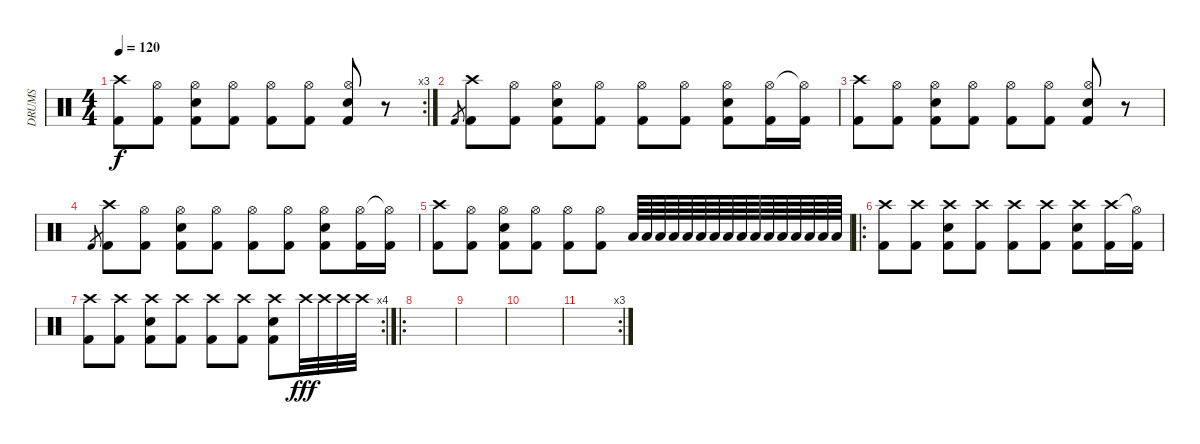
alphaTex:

\track ("DRUMS" "DRUMS") {instrument percussion}
\staff {score}
\articulation defaults
\rc 3
\ts (4 4)
\tempo 120
\clef neutral
\ks c
("Crash high (hit)" "Kick (hit) 2").8{dy f} ("Hi-Hat (open)" "Kick (hit) 2").8 ("Hi-Hat (open)" "Snare (hit) 2" "Kick (hit) 2").8 ("Hi-Hat (open)" "Kick (hit) 2").8 ("Hi-Hat (open)" "Kick (hit) 2").8 ("Hi-Hat (open)" "Kick (hit) 2").8 ("Hi-Hat (open)" "Snare (hit) 2" "Kick (hit) 2").8 r.8 |
"Kick (hit) 2".8{gr} ("Crash high (hit)" "Kick (hit) 2").8 ("Hi-Hat (open)" "Kick (hit) 2").8 ("Hi-Hat (open)" "Snare (hit) 2" "Kick (hit) 2").8 ("Hi-Hat (open)" "Kick (hit) 2").8 ("Hi-Hat (open)" "Kick (hit) 2").8 ("Hi-Hat (open)" "Kick (hit) 2").8 ("Hi-Hat (open)" "Snare (hit) 2" "Kick (hit) 2").8 ("Hi-Hat (open)" "Kick (hit) 2").16 ("Hi-Hat (open)"{t} "Kick (hit) 2").16 |
("Crash high (hit)" "Kick (hit) 2").8 ("Hi-Hat (open)" "Kick (hit) 2").8 ("Hi-Hat (open)" "Snare (hit) 2" "Kick (hit) 2").8 ("Hi-Hat (open)" "Kick (hit) 2").8 ("Hi-Hat (open)" "Kick (hit) 2").8 ("Hi-Hat (open)" "Kick (hit) 2").8 ("Hi-Hat (open)" "Snare (hit) 2" "Kick (hit) 2").8 r.8 |
"Kick (hit) 2".8{gr} ("Crash high (hit)" "Kick (hit) 2").8 ("Hi-Hat (open)" "Kick (hit) 2").8 ("Hi-Hat (open)" "Snare (hit) 2" "Kick (hit) 2").8 ("Hi-Hat (open)" "Kick (hit) 2").8 ("Hi-Hat (open)" "Kick (hit) 2").8 ("Hi-Hat (open)" "Kick (hit) 2").8 ("Hi-Hat (open)" "Snare (hit) 2" "Kick (hit) 2").8 ("Hi-Hat (open)" "Kick (hit) 2").16 ("Hi-Hat (open)"{t} "Kick (hit) 2").16 |
("Crash high (hit)" "Kick (hit) 2").8 ("Hi-Hat (open)" "Kick (hit) 2").8 ("Hi-Hat (open)" "Snare (hit) 2" "Kick (hit) 2").8 ("Hi-Hat (open)" "Kick (hit) 2").8 ("Hi-Hat (open)" "Kick (hit) 2").8 ("Hi-Hat (open)" "Kick (hit) 2").8 "Low Floor Tom (hit)".64 "Low Floor Tom (hit)".64 "Low Floor Tom (hit)".64 "Low Floor Tom (hit)".64 "Low Floor Tom (hit)".64 "Low Floor Tom (hit)".64 "Low Floor Tom (hit)".64 "Low Floor Tom (hit)".64 "Low Floor Tom (hit)".64 "Low Floor Tom (hit)".64 "Low Floor Tom (hit)".64 "Low Floor Tom (hit)".64 "Low Floor Tom (hit)".64 "Low Floor Tom (hit)".64 "Low Floor Tom (hit)".64 "Low Floor Tom (hit)".64 |
\ro
("Crash high (hit)" "Kick (hit) 2").8 ("Crash high (hit)" "Kick (hit) 2").8 ("Crash high (hit)" "Snare (hit) 2" "Kick (hit) 2").8 ("Crash high (hit)" "Kick (hit) 2").8 ("Crash high (hit)" "Kick (hit) 2").8 ("Crash high (hit)" "Kick (hit) 2").8 ("Crash high (hit)" "Snare (hit) 2" "Kick (hit) 2").8 ("Crash high (hit)" "Kick (hit) 2").16 ("Hi-Hat (open)"{t} "Kick (hit) 2").16 |
\rc 4
("Crash high (hit)" "Kick (hit) 2").8 ("Crash high (hit)" "Kick (hit) 2").8 ("Crash high (hit)" "Snare (hit) 2" "Kick (hit) 2").8 ("Crash high (hit)" "Kick (hit) 2").8 ("Crash high (hit)" "Kick (hit) 2").8 ("Crash high (hit)" "Kick (hit) 2").8 ("Crash high (hit)" "Snare (hit) 2" "Kick (hit) 2").8 "Crash high (hit)".32{dy fff} "Crash high (hit)".32 "Crash high (hit)".32 "Crash high (hit)".32 |
\ro
|
|
|
\rc 3
